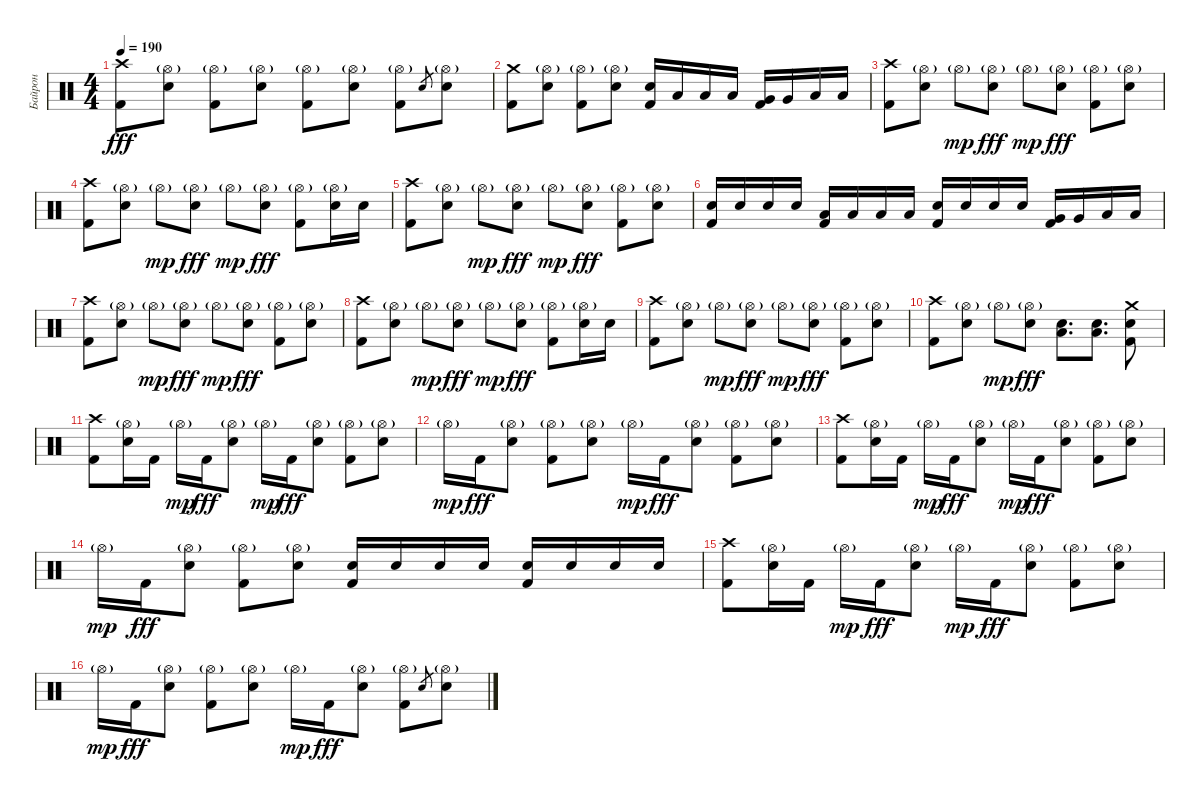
\track ("Байрон" "Байрон") {instrument percussion}
\staff {score}
\articulation defaults
\ts (4 4)
\tempo 190
\clef neutral
\ks c
("Crash high (hit)" "Kick (hit) 2").8{dy fff} ("Hi-Hat (open)"{g} "Electric Snare (hit)").8 ("Hi-Hat (open)"{g} "Kick (hit) 2").8 ("Hi-Hat (open)"{g} "Electric Snare (hit)").8 ("Hi-Hat (open)"{g} "Kick (hit) 2").8 ("Hi-Hat (open)"{g} "Electric Snare (hit)").8 ("Hi-Hat (open)"{g} "Kick (hit) 2").8 "Electric Snare (hit)".8{gr} ("Hi-Hat (open)"{g} "Electric Snare (hit)").8 |
("Crash medium (hit)" "Kick (hit) 2").8 ("Hi-Hat (open)"{g} "Electric Snare (hit)").8 ("Hi-Hat (open)"{g} "Kick (hit) 2").8 ("Hi-Hat (open)"{g} "Electric Snare (hit)").8 ("Electric Snare (hit)" "Kick (hit) 2").16 "Low Tom (hit)".16 "Low Tom (hit)".16 "Low Tom (hit)".16 ("Very Low Tom (hit)" "Kick (hit) 2").16 "Very Low Tom (hit)".16 "Low Floor Tom (hit)".16 "Low Floor Tom (hit)".16 |
("Crash high (hit)" "Kick (hit) 2").8 ("Hi-Hat (open)"{g} "Electric Snare (hit)").8 "Hi-Hat (open)"{g}.8{dy mp} ("Hi-Hat (open)"{g} "Electric Snare (hit)").8{dy fff} "Hi-Hat (open)"{g}.8{dy mp} ("Hi-Hat (open)"{g} "Electric Snare (hit)").8{dy fff} ("Hi-Hat (open)"{g} "Kick (hit) 2").8 ("Hi-Hat (open)"{g} "Electric Snare (hit)").8 |
("Crash high (hit)" "Kick (hit) 2").8 ("Hi-Hat (open)"{g} "Electric Snare (hit)").8 "Hi-Hat (open)"{g}.8{dy mp} ("Hi-Hat (open)"{g} "Electric Snare (hit)").8{dy fff} "Hi-Hat (open)"{g}.8{dy mp} ("Hi-Hat (open)"{g} "Electric Snare (hit)").8{dy fff} ("Hi-Hat (open)"{g} "Kick (hit) 2").8 ("Hi-Hat (open)"{g} "Electric Snare (hit)").16 "Electric Snare (hit)".16 |
("Crash high (hit)" "Kick (hit) 2").8 ("Hi-Hat (open)"{g} "Electric Snare (hit)").8 "Hi-Hat (open)"{g}.8{dy mp} ("Hi-Hat (open)"{g} "Electric Snare (hit)").8{dy fff} "Hi-Hat (open)"{g}.8{dy mp} ("Hi-Hat (open)"{g} "Electric Snare (hit)").8{dy fff} ("Hi-Hat (open)"{g} "Kick (hit) 2").8 ("Hi-Hat (open)"{g} "Electric Snare (hit)").8 |
("Electric Snare (hit)" "Kick (hit) 2").16 "Electric Snare (hit)".16 "Electric Snare (hit)".16 "Electric Snare (hit)".16 ("Low Tom (hit)" "Kick (hit) 2").16 "Low Tom (hit)".16 "Low Tom (hit)".16 "Low Tom (hit)".16 ("Electric Snare (hit)" "Kick (hit) 2").16 "Electric Snare (hit)".16 "Electric Snare (hit)".16 "Electric Snare (hit)".16 ("Very Low Tom (hit)" "Kick (hit) 2").16 "Very Low Tom (hit)".16 "Low Floor Tom (hit)".16 "Low Floor Tom (hit)".16 |
("Crash high (hit)" "Kick (hit) 2").8 ("Hi-Hat (open)"{g} "Electric Snare (hit)").8 "Hi-Hat (open)"{g}.8{dy mp} ("Hi-Hat (open)"{g} "Electric Snare (hit)").8{dy fff} "Hi-Hat (open)"{g}.8{dy mp} ("Hi-Hat (open)"{g} "Electric Snare (hit)").8{dy fff} ("Hi-Hat (open)"{g} "Kick (hit) 2").8 ("Hi-Hat (open)"{g} "Electric Snare (hit)").8 |
("Crash high (hit)" "Kick (hit) 2").8 ("Hi-Hat (open)"{g} "Electric Snare (hit)").8 "Hi-Hat (open)"{g}.8{dy mp} ("Hi-Hat (open)"{g} "Electric Snare (hit)").8{dy fff} "Hi-Hat (open)"{g}.8{dy mp} ("Hi-Hat (open)"{g} "Electric Snare (hit)").8{dy fff} ("Hi-Hat (open)"{g} "Kick (hit) 2").8 ("Hi-Hat (open)"{g} "Electric Snare (hit)").16 "Electric Snare (hit)".16 |
("Crash high (hit)" "Kick (hit) 2").8 ("Hi-Hat (open)"{g} "Electric Snare (hit)").8 "Hi-Hat (open)"{g}.8{dy mp} ("Hi-Hat (open)"{g} "Electric Snare (hit)").8{dy fff} "Hi-Hat (open)"{g}.8{dy mp} ("Hi-Hat (open)"{g} "Electric Snare (hit)").8{dy fff} ("Hi-Hat (open)"{g} "Kick (hit) 2").8 ("Hi-Hat (open)"{g} "Electric Snare (hit)").8 |
("Crash high (hit)" "Kick (hit) 2").8 ("Hi-Hat (open)"{g} "Electric Snare (hit)").8 "Hi-Hat (open)"{g}.8{dy mp} ("Hi-Hat (open)"{g} "Electric Snare (hit)").8{dy fff} ("Low Tom (hit)" "Electric Snare (hit)").8{d} ("Low Tom (hit)" "Electric Snare (hit)").8{d} ("Crash medium (hit)" "Electric Snare (hit)" "Kick (hit) 2").8 |
("Crash high (hit)" "Kick (hit) 2").8 ("Hi-Hat (open)"{g} "Electric Snare (hit)").16 "Kick (hit) 2".16 "Hi-Hat (open)"{g}.16{dy mp} "Kick (hit) 2".16{dy fff} ("Hi-Hat (open)"{g} "Electric Snare (hit)").8 "Hi-Hat (open)"{g}.16{dy mp} "Kick (hit) 2".16{dy fff} ("Hi-Hat (open)"{g} "Electric Snare (hit)").8 ("Hi-Hat (open)"{g} "Kick (hit) 2").8 ("Hi-Hat (open)"{g} "Electric Snare (hit)").8 |
"Hi-Hat (open)"{g}.16{dy mp} "Kick (hit) 2".16{dy fff} ("Hi-Hat (open)"{g} "Electric Snare (hit)").8 ("Hi-Hat (open)"{g} "Kick (hit) 2").8 ("Hi-Hat (open)"{g} "Electric Snare (hit)").8 "Hi-Hat (open)"{g}.16{dy mp} "Kick (hit) 2".16{dy fff} ("Hi-Hat (open)"{g} "Electric Snare (hit)").8 ("Hi-Hat (open)"{g} "Kick (hit) 2").8 ("Hi-Hat (open)"{g} "Electric Snare (hit)").8 |
("Crash high (hit)" "Kick (hit) 2").8 ("Hi-Hat (open)"{g} "Electric Snare (hit)").16 "Kick (hit) 2".16 "Hi-Hat (open)"{g}.16{dy mp} "Kick (hit) 2".16{dy fff} ("Hi-Hat (open)"{g} "Electric Snare (hit)").8 "Hi-Hat (open)"{g}.16{dy mp} "Kick (hit) 2".16{dy fff} ("Hi-Hat (open)"{g} "Electric Snare (hit)").8 ("Hi-Hat (open)"{g} "Kick (hit) 2").8 ("Hi-Hat (open)"{g} "Electric Snare (hit)").8 |
"Hi-Hat (open)"{g}.16{dy mp} "Kick (hit) 2".16{dy fff} ("Hi-Hat (open)"{g} "Electric Snare (hit)").8 ("Hi-Hat (open)"{g} "Kick (hit) 2").8 ("Hi-Hat (open)"{g} "Electric Snare (hit)").8 ("Electric Snare (hit)" "Kick (hit) 2").16 "Electric Snare (hit)".16 "Electric Snare (hit)".16 "Electric Snare (hit)".16 ("Electric Snare (hit)" "Kick (hit) 2").16 "Electric Snare (hit)".16 "Electric Snare (hit)".16 "Electric Snare (hit)".16 |
("Crash high (hit)" "Kick (hit) 2").8 ("Hi-Hat (open)"{g} "Electric Snare (hit)").16 "Kick (hit) 2".16 "Hi-Hat (open)"{g}.16{dy mp} "Kick (hit) 2".16{dy fff} ("Hi-Hat (open)"{g} "Electric Snare (hit)").8 "Hi-Hat (open)"{g}.16{dy mp} "Kick (hit) 2".16{dy fff} ("Hi-Hat (open)"{g} "Electric Snare (hit)").8 ("Hi-Hat (open)"{g} "Kick (hit) 2").8 ("Hi-Hat (open)"{g} "Electric Snare (hit)").8 |
"Hi-Hat (open)"{g}.16{dy mp} "Kick (hit) 2".16{dy fff} ("Hi-Hat (open)"{g} "Electric Snare (hit)").8 ("Hi-Hat (open)"{g} "Kick (hit) 2").8 ("Hi-Hat (open)"{g} "Electric Snare (hit)").8 "Hi-Hat (open)"{g}.16{dy mp} "Kick (hit) 2".16{dy fff} ("Hi-Hat (open)"{g} "Electric Snare (hit)").8 ("Hi-Hat (open)"{g} "Kick (hit) 2").8 "Electric Snare (hit)".8{gr} ("Hi-Hat (open)"{g} "Electric Snare (hit)").8
